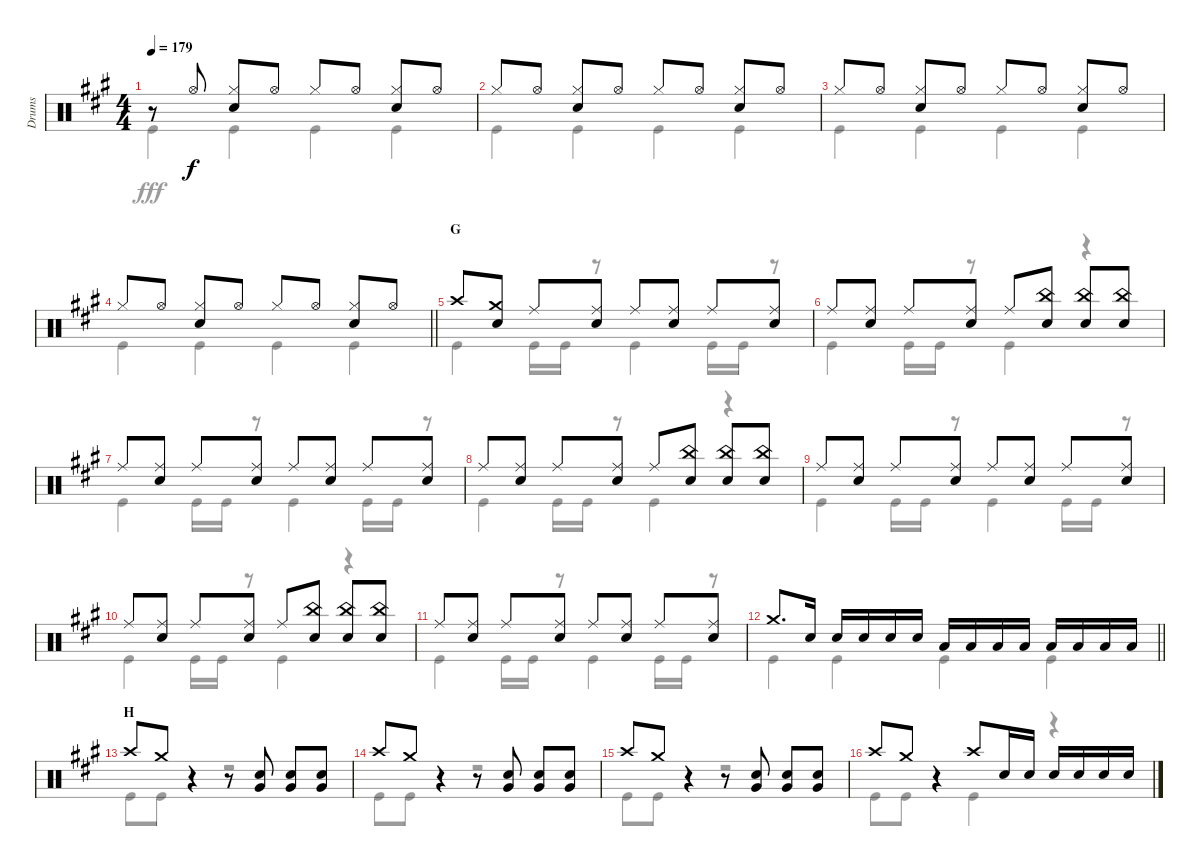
\track ("Drums" "Drums") {instrument percussion}
\staff {score}
\articulation defaults
\voice
\ts (4 4)
\tempo 179
\clef neutral
\ks a
r.8{dy f} "Hi-Hat (open)".8 ("Hi-Hat (closed)" "Snare (hit) 2").8 "Hi-Hat (open)".8 "Hi-Hat (closed)".8 "Hi-Hat (open)".8 ("Hi-Hat (closed)" "Snare (hit) 2").8 "Hi-Hat (open)".8 |
"Hi-Hat (closed)".8 "Hi-Hat (open)".8 ("Hi-Hat (closed)" "Snare (hit) 2").8 "Hi-Hat (open)".8 "Hi-Hat (closed)".8 "Hi-Hat (open)".8 ("Hi-Hat (closed)" "Snare (hit) 2").8 "Hi-Hat (open)".8 |
"Hi-Hat (closed)".8 "Hi-Hat (open)".8 ("Hi-Hat (closed)" "Snare (hit) 2").8 "Hi-Hat (open)".8 "Hi-Hat (closed)".8 "Hi-Hat (open)".8 ("Hi-Hat (closed)" "Snare (hit) 2").8 "Hi-Hat (open)".8 |
\barLineRight lightlight "Hi-Hat (closed)".8 "Hi-Hat (open)".8
("Hi-Hat (closed)" "Snare (hit) 2").8 "Hi-Hat (open)".8 "Hi-Hat (closed)".8 "Hi-Hat (open)".8 ("Hi-Hat (closed)" "Snare (hit) 2").8 "Hi-Hat (open)".8 |
\section ("" "G")
"Crash high (hit)".8 ("Crash medium (hit)" "Snare (hit) 2").8 "Ride (middle)".8 ("Ride (middle)" "Snare (hit) 2").8 "Ride (middle)".8 ("Ride (middle)" "Snare (hit) 2").8 "Ride (middle)".8 ("Ride (middle)" "Snare (hit) 2").8 |
"Ride (middle)".8 ("Ride (middle)" "Snare (hit) 2").8 "Ride (middle)".8 ("Ride (middle)" "Snare (hit) 2").8 "Ride (middle)".8 ("China (hit)" "Snare (hit) 2").8 ("China (hit)" "Snare (hit) 2").8 ("China (hit)" "Snare (hit) 2").8 |
"Ride (middle)".8 ("Ride (middle)" "Snare (hit) 2").8 "Ride (middle)".8 ("Ride (middle)" "Snare (hit) 2").8 "Ride (middle)".8 ("Ride (middle)" "Snare (hit) 2").8 "Ride (middle)".8 ("Ride (middle)" "Snare (hit) 2").8 |
"Ride (middle)".8 ("Ride (middle)" "Snare (hit) 2").8 "Ride (middle)".8 ("Ride (middle)" "Snare (hit) 2").8 "Ride (middle)".8 ("China (hit)" "Snare (hit) 2").8 ("China (hit)" "Snare (hit) 2").8 ("China (hit)" "Snare (hit) 2").8 |
"Ride (middle)".8 ("Ride (middle)" "Snare (hit) 2").8 "Ride (middle)".8 ("Ride (middle)" "Snare (hit) 2").8 "Ride (middle)".8 ("Ride (middle)" "Snare (hit) 2").8 "Ride (middle)".8 ("Ride (middle)" "Snare (hit) 2").8 |
"Ride (middle)".8 ("Ride (middle)" "Snare (hit) 2").8 "Ride (middle)".8 ("Ride (middle)" "Snare (hit) 2").8 "Ride (middle)".8 ("China (hit)" "Snare (hit) 2").8 ("China (hit)" "Snare (hit) 2").8 ("China (hit)" "Snare (hit) 2").8 |
"Ride (middle)".8 ("Ride (middle)" "Snare (hit) 2").8 "Ride (middle)".8 ("Ride (middle)" "Snare (hit) 2").8 "Ride (middle)".8 ("Ride (middle)" "Snare (hit) 2").8 "Ride (middle)".8 ("Ride (middle)" "Snare (hit) 2").8 |
\barLineRight lightlight "Crash medium (hit)".8{d} "Snare (hit) 2".16 "Snare (hit) 2".16 "Snare (hit) 2".16 "Snare (hit) 2".16 "Snare (hit) 2".16 "Low Tom (hit)".16 "Low Tom (hit)".16 "Low Tom (hit)".16 "Low Tom (hit)".16 "Low Tom (hit)".16 "Low Tom (hit)".16 "Low Tom (hit)".16 "Low Tom (hit)".16
|
\section ("" "H")
"Crash high (hit)".8 "Crash medium (hit)".8 r.4 r.8 ("Snare (hit) 2" "Very Low Tom (hit)").8 ("Snare (hit) 2" "Very Low Tom (hit)").8 ("Snare (hit) 2" "Very Low Tom (hit)").8 |
"Crash high (hit)".8 "Crash medium (hit)".8 r.4 r.8 ("Snare (hit) 2" "Very Low Tom (hit)").8 ("Snare (hit) 2" "Very Low Tom (hit)").8 ("Snare (hit) 2" "Very Low Tom (hit)").8 |
"Crash high (hit)".8 "Crash medium (hit)".8 r.4 r.8 ("Snare (hit) 2" "Very Low Tom (hit)").8 ("Snare (hit) 2" "Very Low Tom (hit)").8 ("Snare (hit) 2" "Very Low Tom (hit)").8 |
"Crash high (hit)".8 "Crash medium (hit)".8 r.4 "Crash high (hit)".8 "Snare (hit) 2".16 "Snare (hit) 2".16 "Snare (hit) 2".16 "Snare (hit) 2".16 "Snare (hit) 2".16 "Snare (hit) 2".16
\voice
\clef neutral
\ottava regular
\simile none
\ks a "Kick (hit)".4{dy fff} "Kick (hit)".4 "Kick (hit)".4 "Kick (hit)".4
|
"Kick (hit)".4 "Kick (hit)".4 "Kick (hit)".4 "Kick (hit)".4 |
"Kick (hit)".4 "Kick (hit)".4 "Kick (hit)".4 "Kick (hit)".4 |
\barLineRight lightlight "Kick (hit)".4 "Kick (hit)".4 "Kick (hit)".4 "Kick (hit)".4
|
"Kick (hit)".4 "Kick (hit)".16 "Kick (hit)".16 r.8 "Kick (hit)".4 "Kick (hit)".16 "Kick (hit)".16 r.8 |
"Kick (hit)".4 "Kick (hit)".16 "Kick (hit)".16 r.8 "Kick (hit)".4 r.4 |
"Kick (hit)".4 "Kick (hit)".16 "Kick (hit)".16 r.8 "Kick (hit)".4 "Kick (hit)".16 "Kick (hit)".16 r.8 |
"Kick (hit)".4 "Kick (hit)".16 "Kick (hit)".16 r.8 "Kick (hit)".4 r.4 |
"Kick (hit)".4 "Kick (hit)".16 "Kick (hit)".16 r.8 "Kick (hit)".4 "Kick (hit)".16 "Kick (hit)".16 r.8 |
"Kick (hit)".4 "Kick (hit)".16 "Kick (hit)".16 r.8 "Kick (hit)".4 r.4 |
"Kick (hit)".4 "Kick (hit)".16 "Kick (hit)".16 r.8 "Kick (hit)".4 "Kick (hit)".16 "Kick (hit)".16 r.8 |
\barLineRight lightlight "Kick (hit)".4 "Kick (hit)".4 "Kick (hit)".4 "Kick (hit)".4
|
"Kick (hit)".8 "Kick (hit)".8 r.4 r.2 |
"Kick (hit)".8 "Kick (hit)".8 r.4 r.2 |
"Kick (hit)".8 "Kick (hit)".8 r.4 r.2 |
"Kick (hit)".8 "Kick (hit)".8 r.4 "Kick (hit)".4 r.4
